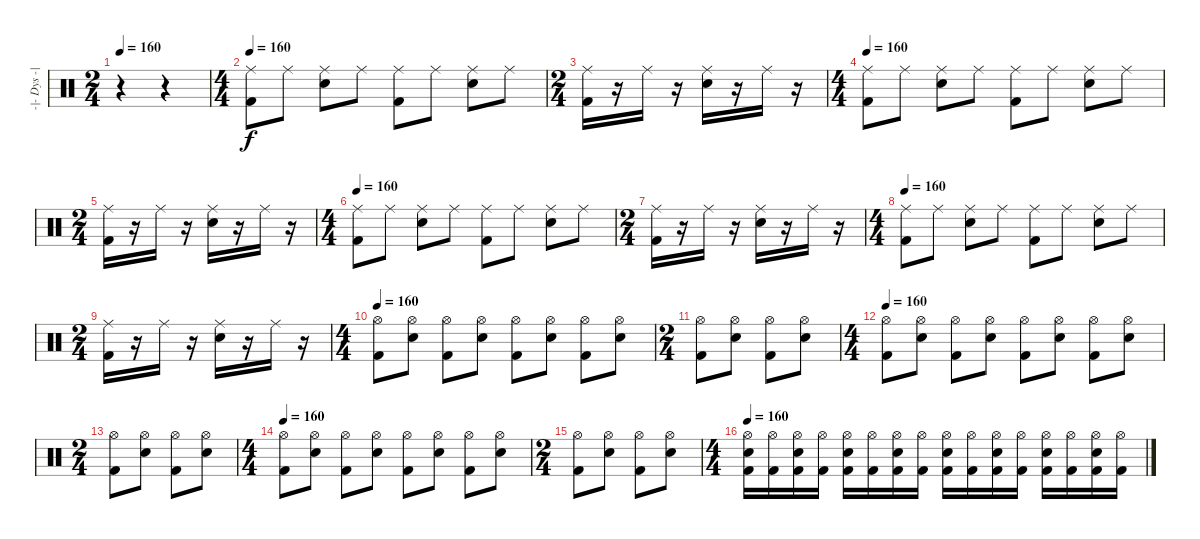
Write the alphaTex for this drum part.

\track ("-|- Dys -|-" "-|- Dys -|") {instrument percussion}
\staff {score}
\articulation defaults
\ts (2 4)
\tempo 160
\clef neutral
\ks c
r.4{dy f} r.4 |
\ts (4 4)
\tempo 160
("Ride (middle)" "Kick (hit) 2").8 "Ride (middle)".8 ("Ride (middle)" "Snare (hit) 2").8 "Ride (middle)".8 ("Ride (middle)" "Kick (hit) 2").8 "Ride (middle)".8 ("Ride (middle)" "Snare (hit) 2").8 "Ride (middle)".8 |
\ts (2 4)
("Ride (middle)" "Kick (hit) 2").16 r.16 "Ride (middle)".16 r.16 ("Ride (middle)" "Snare (hit) 2").16 r.16 "Ride (middle)".16 r.16 |
\ts (4 4)
\tempo 160
("Ride (middle)" "Kick (hit) 2").8 "Ride (middle)".8 ("Ride (middle)" "Snare (hit) 2").8 "Ride (middle)".8 ("Ride (middle)" "Kick (hit) 2").8 "Ride (middle)".8 ("Ride (middle)" "Snare (hit) 2").8 "Ride (middle)".8 |
\ts (2 4)
("Ride (middle)" "Kick (hit) 2").16 r.16 "Ride (middle)".16 r.16 ("Ride (middle)" "Snare (hit) 2").16 r.16 "Ride (middle)".16 r.16 |
\ts (4 4)
\tempo 160
("Ride (middle)" "Kick (hit) 2").8 "Ride (middle)".8 ("Ride (middle)" "Snare (hit) 2").8 "Ride (middle)".8 ("Ride (middle)" "Kick (hit) 2").8 "Ride (middle)".8 ("Ride (middle)" "Snare (hit) 2").8 "Ride (middle)".8 |
\ts (2 4)
("Ride (middle)" "Kick (hit) 2").16 r.16 "Ride (middle)".16 r.16 ("Ride (middle)" "Snare (hit) 2").16 r.16 "Ride (middle)".16 r.16 |
\ts (4 4)
\tempo 160
("Ride (middle)" "Kick (hit) 2").8 "Ride (middle)".8 ("Ride (middle)" "Snare (hit) 2").8 "Ride (middle)".8 ("Ride (middle)" "Kick (hit) 2").8 "Ride (middle)".8 ("Ride (middle)" "Snare (hit) 2").8 "Ride (middle)".8 |
\ts (2 4)
("Ride (middle)" "Kick (hit) 2").16 r.16 "Ride (middle)".16 r.16 ("Ride (middle)" "Snare (hit) 2").16 r.16 "Ride (middle)".16 r.16 |
\ts (4 4)
\tempo 160
("Hi-Hat (open)" "Kick (hit) 2").8 ("Hi-Hat (open)" "Snare (hit) 2").8 ("Hi-Hat (open)" "Kick (hit) 2").8 ("Hi-Hat (open)" "Snare (hit) 2").8 ("Hi-Hat (open)" "Kick (hit) 2").8 ("Hi-Hat (open)" "Snare (hit) 2").8 ("Hi-Hat (open)" "Kick (hit) 2").8 ("Hi-Hat (open)" "Snare (hit) 2").8 |
\ts (2 4)
("Hi-Hat (open)" "Kick (hit) 2").8 ("Hi-Hat (open)" "Snare (hit) 2").8 ("Hi-Hat (open)" "Kick (hit) 2").8 ("Hi-Hat (open)" "Snare (hit) 2").8 |
\ts (4 4)
\tempo 160
("Hi-Hat (open)" "Kick (hit) 2").8 ("Hi-Hat (open)" "Snare (hit) 2").8 ("Hi-Hat (open)" "Kick (hit) 2").8 ("Hi-Hat (open)" "Snare (hit) 2").8 ("Hi-Hat (open)" "Kick (hit) 2").8 ("Hi-Hat (open)" "Snare (hit) 2").8 ("Hi-Hat (open)" "Kick (hit) 2").8 ("Hi-Hat (open)" "Snare (hit) 2").8 |
\ts (2 4)
("Hi-Hat (open)" "Kick (hit) 2").8 ("Hi-Hat (open)" "Snare (hit) 2").8 ("Hi-Hat (open)" "Kick (hit) 2").8 ("Hi-Hat (open)" "Snare (hit) 2").8 |
\ts (4 4)
\tempo 160
("Hi-Hat (open)" "Kick (hit) 2").8 ("Hi-Hat (open)" "Snare (hit) 2").8 ("Hi-Hat (open)" "Kick (hit) 2").8 ("Hi-Hat (open)" "Snare (hit) 2").8 ("Hi-Hat (open)" "Kick (hit) 2").8 ("Hi-Hat (open)" "Snare (hit) 2").8 ("Hi-Hat (open)" "Kick (hit) 2").8 ("Hi-Hat (open)" "Snare (hit) 2").8 |
\ts (2 4)
("Hi-Hat (open)" "Kick (hit) 2").8 ("Hi-Hat (open)" "Snare (hit) 2").8 ("Hi-Hat (open)" "Kick (hit) 2").8 ("Hi-Hat (open)" "Snare (hit) 2").8 |
\ts (4 4)
\tempo 160
("Hi-Hat (open)" "Snare (hit) 2" "Kick (hit) 2").16 ("Hi-Hat (open)" "Kick (hit) 2").16 ("Hi-Hat (open)" "Snare (hit) 2" "Kick (hit) 2").16 ("Hi-Hat (open)" "Kick (hit) 2").16 ("Hi-Hat (open)" "Snare (hit) 2" "Kick (hit) 2").16 ("Hi-Hat (open)" "Kick (hit) 2").16 ("Hi-Hat (open)" "Snare (hit) 2" "Kick (hit) 2").16 ("Hi-Hat (open)" "Kick (hit) 2").16 ("Hi-Hat (open)" "Snare (hit) 2" "Kick (hit) 2").16 ("Hi-Hat (open)" "Kick (hit) 2").16 ("Hi-Hat (open)" "Snare (hit) 2" "Kick (hit) 2").16 ("Hi-Hat (open)" "Kick (hit) 2").16 ("Hi-Hat (open)" "Snare (hit) 2" "Kick (hit) 2").16 ("Hi-Hat (open)" "Kick (hit) 2").16 ("Hi-Hat (open)" "Snare (hit) 2" "Kick (hit) 2").16 ("Hi-Hat (open)" "Kick (hit) 2").16
